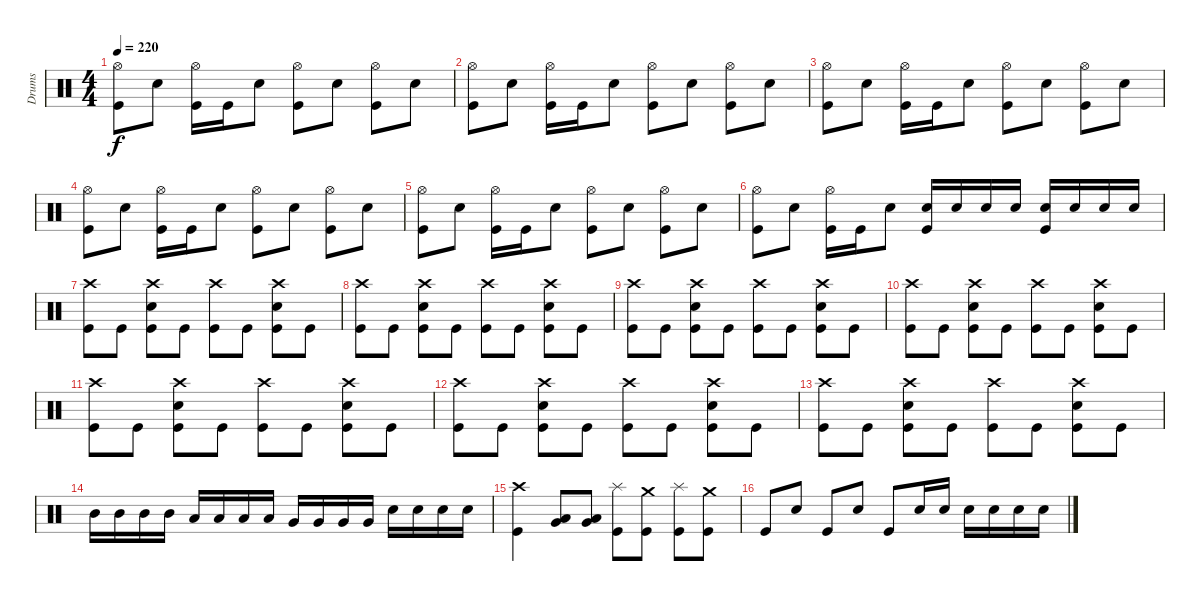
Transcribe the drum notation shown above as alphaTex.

\track ("Drums" "Drums") {instrument percussion}
\staff {score}
\articulation defaults
\ts (4 4)
\tempo 220
\clef neutral
\ks c
("Hi-Hat (open)" "Kick (hit)").8{dy f} "Snare (hit) 2".8 ("Hi-Hat (open)" "Kick (hit)").16 "Kick (hit)".16 "Snare (hit) 2".8 ("Hi-Hat (open)" "Kick (hit)").8 "Snare (hit) 2".8 ("Hi-Hat (open)" "Kick (hit)").8 "Snare (hit) 2".8 |
("Hi-Hat (open)" "Kick (hit)").8 "Snare (hit) 2".8 ("Hi-Hat (open)" "Kick (hit)").16 "Kick (hit)".16 "Snare (hit) 2".8 ("Hi-Hat (open)" "Kick (hit)").8 "Snare (hit) 2".8 ("Hi-Hat (open)" "Kick (hit)").8 "Snare (hit) 2".8 |
("Hi-Hat (open)" "Kick (hit)").8 "Snare (hit) 2".8 ("Hi-Hat (open)" "Kick (hit)").16 "Kick (hit)".16 "Snare (hit) 2".8 ("Hi-Hat (open)" "Kick (hit)").8 "Snare (hit) 2".8 ("Hi-Hat (open)" "Kick (hit)").8 "Snare (hit) 2".8 |
("Hi-Hat (open)" "Kick (hit)").8 "Snare (hit) 2".8 ("Hi-Hat (open)" "Kick (hit)").16 "Kick (hit)".16 "Snare (hit) 2".8 ("Hi-Hat (open)" "Kick (hit)").8 "Snare (hit) 2".8 ("Hi-Hat (open)" "Kick (hit)").8 "Snare (hit) 2".8 |
("Hi-Hat (open)" "Kick (hit)").8 "Snare (hit) 2".8 ("Hi-Hat (open)" "Kick (hit)").16 "Kick (hit)".16 "Snare (hit) 2".8 ("Hi-Hat (open)" "Kick (hit)").8 "Snare (hit) 2".8 ("Hi-Hat (open)" "Kick (hit)").8 "Snare (hit) 2".8 |
("Hi-Hat (open)" "Kick (hit)").8 "Snare (hit) 2".8 ("Hi-Hat (open)" "Kick (hit)").16 "Kick (hit)".16 "Snare (hit) 2".8 ("Snare (hit) 2" "Kick (hit)").16 "Snare (hit) 2".16 "Snare (hit) 2".16 "Snare (hit) 2".16 ("Snare (hit) 2" "Kick (hit)").16 "Snare (hit) 2".16 "Snare (hit) 2".16 "Snare (hit) 2".16 |
("Crash high (hit)" "Kick (hit)").8 "Kick (hit)".8 ("Crash high (hit)" "Snare (hit) 2" "Kick (hit)").8 "Kick (hit)".8 ("Crash high (hit)" "Kick (hit)").8 "Kick (hit)".8 ("Crash high (hit)" "Snare (hit) 2" "Kick (hit)").8 "Kick (hit)".8 |
("Crash high (hit)" "Kick (hit)").8 "Kick (hit)".8 ("Crash high (hit)" "Snare (hit) 2" "Kick (hit)").8 "Kick (hit)".8 ("Crash high (hit)" "Kick (hit)").8 "Kick (hit)".8 ("Crash high (hit)" "Snare (hit) 2" "Kick (hit)").8 "Kick (hit)".8 |
("Crash high (hit)" "Kick (hit)").8 "Kick (hit)".8 ("Crash high (hit)" "Snare (hit) 2" "Kick (hit)").8 "Kick (hit)".8 ("Crash high (hit)" "Kick (hit)").8 "Kick (hit)".8 ("Crash high (hit)" "Snare (hit) 2" "Kick (hit)").8 "Kick (hit)".8 |
("Crash high (hit)" "Kick (hit)").8 "Kick (hit)".8 ("Crash high (hit)" "Snare (hit) 2" "Kick (hit)").8 "Kick (hit)".8 ("Crash high (hit)" "Kick (hit)").8 "Kick (hit)".8 ("Crash high (hit)" "Snare (hit) 2" "Kick (hit)").8 "Kick (hit)".8 |
("Crash high (hit)" "Kick (hit)").8 "Kick (hit)".8 ("Crash high (hit)" "Snare (hit) 2" "Kick (hit)").8 "Kick (hit)".8 ("Crash high (hit)" "Kick (hit)").8 "Kick (hit)".8 ("Crash high (hit)" "Snare (hit) 2" "Kick (hit)").8 "Kick (hit)".8 |
("Crash high (hit)" "Kick (hit)").8 "Kick (hit)".8 ("Crash high (hit)" "Snare (hit) 2" "Kick (hit)").8 "Kick (hit)".8 ("Crash high (hit)" "Kick (hit)").8 "Kick (hit)".8 ("Crash high (hit)" "Snare (hit) 2" "Kick (hit)").8 "Kick (hit)".8 |
("Crash high (hit)" "Kick (hit)").8 "Kick (hit)".8 ("Crash high (hit)" "Snare (hit) 2" "Kick (hit)").8 "Kick (hit)".8 ("Crash high (hit)" "Kick (hit)").8 "Kick (hit)".8 ("Crash high (hit)" "Snare (hit) 2" "Kick (hit)").8 "Kick (hit)".8 |
"Mid Tom (hit)".16 "Mid Tom (hit)".16 "Mid Tom (hit)".16 "Mid Tom (hit)".16 "Low Tom (hit)".16 "Low Tom (hit)".16 "Low Tom (hit)".16 "Low Tom (hit)".16 "Very Low Tom (hit)".16 "Very Low Tom (hit)".16 "Very Low Tom (hit)".16 "Very Low Tom (hit)".16 "Snare (hit) 2".16 "Snare (hit) 2".16 "Snare (hit) 2".16 "Snare (hit) 2".16 |
("Crash high (hit)" "Kick (hit)").4 ("Very Low Tom (hit)" "Low Floor Tom (hit)").8 ("Very Low Tom (hit)" "Low Floor Tom (hit)").8 ("Splash (hit)" "Kick (hit)").8 ("Crash medium (hit)" "Kick (hit)").8 ("Splash (hit)" "Kick (hit)").8 ("Crash medium (hit)" "Kick (hit)").8 |
"Kick (hit)".8 "Snare (hit) 2".8 "Kick (hit)".8 "Snare (hit) 2".8 "Kick (hit)".8 "Snare (hit) 2".16 "Snare (hit) 2".16 "Snare (hit) 2".16 "Snare (hit) 2".16 "Snare (hit) 2".16 "Snare (hit) 2".16
